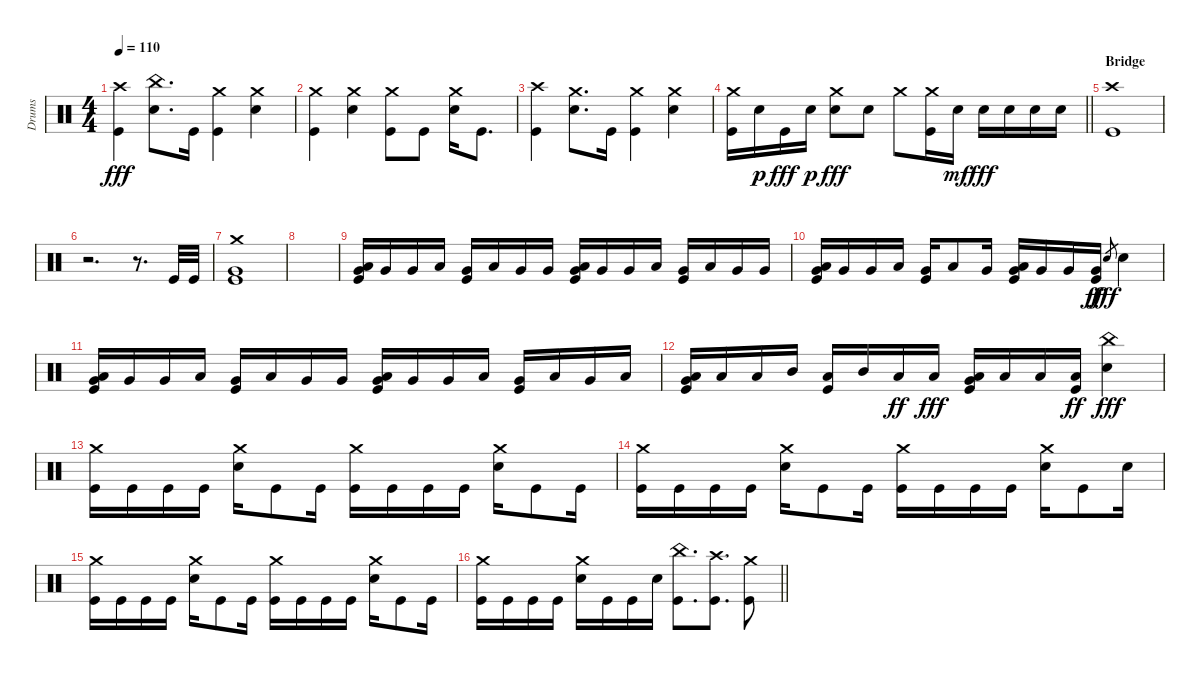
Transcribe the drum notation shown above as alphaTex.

\track ("Drums" "Drums") {instrument percussion}
\staff {score}
\articulation defaults
\ts (4 4)
\tempo 110
\clef neutral
\ks c
("Crash high (hit)" "Kick (hit)").4{dy fff} ("China (hit)" "Snare (hit) 2").8{d} "Kick (hit)".16 ("Crash medium (hit)" "Kick (hit)").4 ("Crash medium (hit)" "Snare (hit) 2").4 |
("Crash medium (hit)" "Kick (hit)").4 ("Crash medium (hit)" "Snare (hit) 2").4 ("Crash medium (hit)" "Kick (hit)").8 "Kick (hit)".8 ("Crash medium (hit)" "Snare (hit) 2").16 "Kick (hit)".8{d} |
("Crash high (hit)" "Kick (hit)").4 ("Crash medium (hit)" "Snare (hit) 2").8{d} "Kick (hit)".16 ("Crash medium (hit)" "Kick (hit)").4 ("Crash medium (hit)" "Snare (hit) 2").4 |
\barLineRight lightlight
("Crash medium (hit)" "Kick (hit)").16 "Snare (hit) 2".16{dy p} "Kick (hit)".16{dy fff} "Snare (hit) 2".16{dy p} ("Crash medium (hit)" "Snare (hit) 2").8{dy fff} "Snare (hit) 2".8 "Crash medium (hit)".8 ("Crash medium (hit)" "Kick (hit)").16 "Snare (hit) 2".16{dy mf} "Snare (hit) 2".16{dy fff} "Snare (hit) 2".16 "Snare (hit) 2".16 "Snare (hit) 2".16 |
\section ("" "Bridge")
("Crash high (hit)" "Kick (hit)").1 |
r.2{d} r.8{d} "Kick (hit)".32 "Kick (hit)".32 |
("Crash medium (hit)" "Very Low Tom (hit)" "Kick (hit)").1 |
|
("Very Low Tom (hit)" "Low Floor Tom (hit)" "Kick (hit)").16 "Very Low Tom (hit)".16 "Very Low Tom (hit)".16 "Low Tom (hit)".16 ("Very Low Tom (hit)" "Kick (hit)").16 "Low Tom (hit)".16 "Very Low Tom (hit)".16 "Very Low Tom (hit)".16 ("Very Low Tom (hit)" "Low Floor Tom (hit)" "Kick (hit)").16 "Very Low Tom (hit)".16 "Very Low Tom (hit)".16 "Low Tom (hit)".16 ("Very Low Tom (hit)" "Kick (hit)").16 "Low Tom (hit)".16 "Very Low Tom (hit)".16 "Very Low Tom (hit)".16 |
("Very Low Tom (hit)" "Low Floor Tom (hit)" "Kick (hit)").16 "Very Low Tom (hit)".16 "Very Low Tom (hit)".16 "Low Tom (hit)".16 ("Very Low Tom (hit)" "Kick (hit)").16 "Low Tom (hit)".8 "Very Low Tom (hit)".16 ("Very Low Tom (hit)" "Low Floor Tom (hit)" "Kick (hit)").16 "Very Low Tom (hit)".16 "Very Low Tom (hit)".16 ("Very Low Tom (hit)" "Kick (hit)").16{dy ff} "Snare (hit) 2".8{gr dy fff} "Snare (hit) 2".4 |
("Very Low Tom (hit)" "Low Floor Tom (hit)" "Kick (hit)").16 "Very Low Tom (hit)".16 "Very Low Tom (hit)".16 "Low Tom (hit)".16 ("Very Low Tom (hit)" "Kick (hit)").16 "Low Tom (hit)".16 "Very Low Tom (hit)".16 "Very Low Tom (hit)".16 ("Very Low Tom (hit)" "Low Floor Tom (hit)" "Kick (hit)").16 "Very Low Tom (hit)".16 "Very Low Tom (hit)".16 "Low Tom (hit)".16 ("Very Low Tom (hit)" "Kick (hit)").16 "Low Tom (hit)".16 "Very Low Tom (hit)".16 "Low Tom (hit)".16 |
("Low Tom (hit)" "Very Low Tom (hit)" "Kick (hit)").16 "Low Tom (hit)".16 "Low Tom (hit)".16 "Mid Tom (hit)".16 ("Low Tom (hit)" "Kick (hit)").16 "Mid Tom (hit)".16 "Low Tom (hit)".16{dy ff} "Low Tom (hit)".16{dy fff} ("Low Tom (hit)" "Very Low Tom (hit)" "Kick (hit)").16 "Low Tom (hit)".16 "Low Tom (hit)".16 ("Low Tom (hit)" "Kick (hit)").16{dy ff} ("China (hit)" "Snare (hit) 2").4{dy fff} |
("Crash medium (hit)" "Kick (hit)").16 "Kick (hit)".16 "Kick (hit)".16 "Kick (hit)".16 ("Crash medium (hit)" "Snare (hit) 2").16 "Kick (hit)".8 "Kick (hit)".16 ("Crash medium (hit)" "Kick (hit)").16 "Kick (hit)".16 "Kick (hit)".16 "Kick (hit)".16 ("Crash medium (hit)" "Snare (hit) 2").16 "Kick (hit)".8 "Kick (hit)".16 |
("Crash medium (hit)" "Kick (hit)").16 "Kick (hit)".16 "Kick (hit)".16 "Kick (hit)".16 ("Crash medium (hit)" "Snare (hit) 2").16 "Kick (hit)".8 "Kick (hit)".16 ("Crash medium (hit)" "Kick (hit)").16 "Kick (hit)".16 "Kick (hit)".16 "Kick (hit)".16 ("Crash medium (hit)" "Snare (hit) 2").16 "Kick (hit)".8 "Snare (hit) 2".16 |
("Crash medium (hit)" "Kick (hit)").16 "Kick (hit)".16 "Kick (hit)".16 "Kick (hit)".16 ("Crash medium (hit)" "Snare (hit) 2").16 "Kick (hit)".8 "Kick (hit)".16 ("Crash medium (hit)" "Kick (hit)").16 "Kick (hit)".16 "Kick (hit)".16 "Kick (hit)".16 ("Crash medium (hit)" "Snare (hit) 2").16 "Kick (hit)".8 "Kick (hit)".16 |
\barLineRight lightlight
("Crash medium (hit)" "Kick (hit)").16 "Kick (hit)".16 "Kick (hit)".16 "Kick (hit)".16 ("Crash medium (hit)" "Snare (hit) 2").16 "Kick (hit)".16 "Kick (hit)".16 "Snare (hit) 2".16 ("China (hit)" "Kick (hit)").8{d} ("Crash high (hit)" "Kick (hit)").8{d} ("Crash medium (hit)" "Kick (hit)").8
